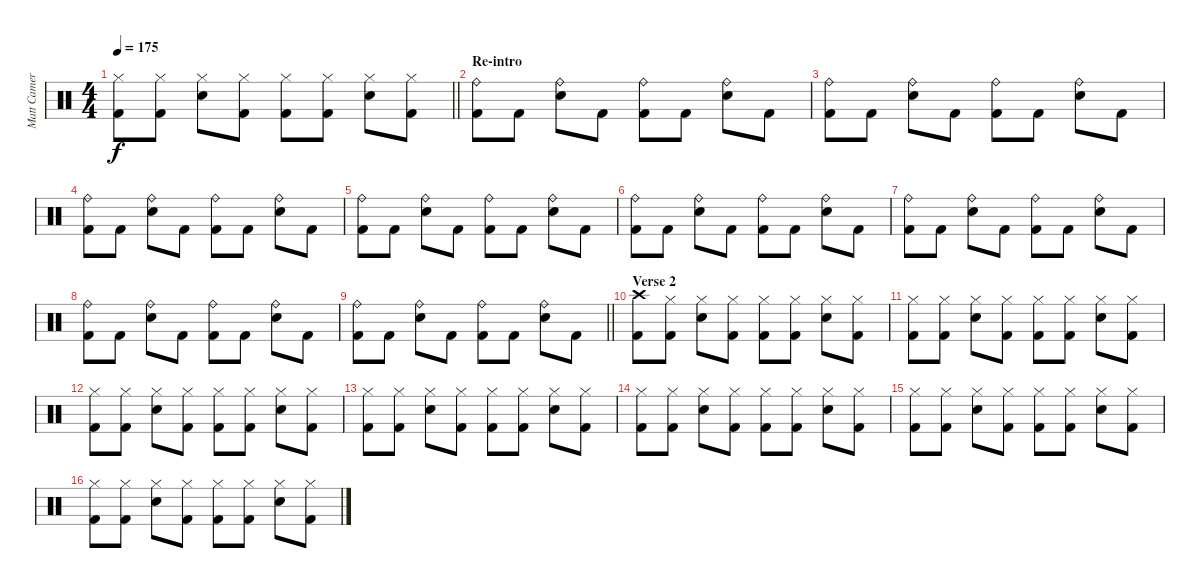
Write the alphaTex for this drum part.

\track ("Matt Cameron" "Matt Camer") {instrument percussion}
\staff {score}
\articulation defaults
\ts (4 4)
\tempo 175
\clef neutral
\barLineRight lightlight
\ks c
("Hi-Hat (closed)" "Kick (hit) 2").8{dy f} ("Hi-Hat (closed)" "Kick (hit) 2").8 ("Hi-Hat (closed)" "Electric Snare (hit)").8 ("Hi-Hat (closed)" "Kick (hit) 2").8 ("Hi-Hat (closed)" "Kick (hit) 2").8 ("Hi-Hat (closed)" "Kick (hit) 2").8 ("Hi-Hat (closed)" "Electric Snare (hit)").8 ("Hi-Hat (closed)" "Kick (hit) 2").8 |
\section ("" "Re-intro")
("Ride (bell)" "Kick (hit) 2").8 "Kick (hit) 2".8 ("Ride (bell)" "Electric Snare (hit)").8 "Kick (hit) 2".8 ("Ride (bell)" "Kick (hit) 2").8 "Kick (hit) 2".8 ("Ride (bell)" "Electric Snare (hit)").8 "Kick (hit) 2".8 |
("Ride (bell)" "Kick (hit) 2").8 "Kick (hit) 2".8 ("Ride (bell)" "Electric Snare (hit)").8 "Kick (hit) 2".8 ("Ride (bell)" "Kick (hit) 2").8 "Kick (hit) 2".8 ("Ride (bell)" "Electric Snare (hit)").8 "Kick (hit) 2".8 |
("Ride (bell)" "Kick (hit) 2").8 "Kick (hit) 2".8 ("Ride (bell)" "Electric Snare (hit)").8 "Kick (hit) 2".8 ("Ride (bell)" "Kick (hit) 2").8 "Kick (hit) 2".8 ("Ride (bell)" "Electric Snare (hit)").8 "Kick (hit) 2".8 |
("Ride (bell)" "Kick (hit) 2").8 "Kick (hit) 2".8 ("Ride (bell)" "Electric Snare (hit)").8 "Kick (hit) 2".8 ("Ride (bell)" "Kick (hit) 2").8 "Kick (hit) 2".8 ("Ride (bell)" "Electric Snare (hit)").8 "Kick (hit) 2".8 |
("Ride (bell)" "Kick (hit) 2").8 "Kick (hit) 2".8 ("Ride (bell)" "Electric Snare (hit)").8 "Kick (hit) 2".8 ("Ride (bell)" "Kick (hit) 2").8 "Kick (hit) 2".8 ("Ride (bell)" "Electric Snare (hit)").8 "Kick (hit) 2".8 |
("Ride (bell)" "Kick (hit) 2").8 "Kick (hit) 2".8 ("Ride (bell)" "Electric Snare (hit)").8 "Kick (hit) 2".8 ("Ride (bell)" "Kick (hit) 2").8 "Kick (hit) 2".8 ("Ride (bell)" "Electric Snare (hit)").8 "Kick (hit) 2".8 |
("Ride (bell)" "Kick (hit) 2").8 "Kick (hit) 2".8 ("Ride (bell)" "Electric Snare (hit)").8 "Kick (hit) 2".8 ("Ride (bell)" "Kick (hit) 2").8 "Kick (hit) 2".8 ("Ride (bell)" "Electric Snare (hit)").8 "Kick (hit) 2".8 |
\barLineRight lightlight
("Ride (bell)" "Kick (hit) 2").8 "Kick (hit) 2".8 ("Ride (bell)" "Electric Snare (hit)").8 "Kick (hit) 2".8 ("Ride (bell)" "Kick (hit) 2").8 "Kick (hit) 2".8 ("Ride (bell)" "Electric Snare (hit)").8 "Kick (hit) 2".8 |
\section ("" "Verse 2")
("Crash high (hit)" "Kick (hit) 2").8 ("Hi-Hat (closed)" "Kick (hit) 2").8 ("Hi-Hat (closed)" "Electric Snare (hit)").8 ("Hi-Hat (closed)" "Kick (hit) 2").8 ("Hi-Hat (closed)" "Kick (hit) 2").8 ("Hi-Hat (closed)" "Kick (hit) 2").8 ("Hi-Hat (closed)" "Electric Snare (hit)").8 ("Hi-Hat (closed)" "Kick (hit) 2").8 |
("Hi-Hat (closed)" "Kick (hit) 2").8 ("Hi-Hat (closed)" "Kick (hit) 2").8 ("Hi-Hat (closed)" "Electric Snare (hit)").8 ("Hi-Hat (closed)" "Kick (hit) 2").8 ("Hi-Hat (closed)" "Kick (hit) 2").8 ("Hi-Hat (closed)" "Kick (hit) 2").8 ("Hi-Hat (closed)" "Electric Snare (hit)").8 ("Hi-Hat (closed)" "Kick (hit) 2").8 |
("Hi-Hat (closed)" "Kick (hit) 2").8 ("Hi-Hat (closed)" "Kick (hit) 2").8 ("Hi-Hat (closed)" "Electric Snare (hit)").8 ("Hi-Hat (closed)" "Kick (hit) 2").8 ("Hi-Hat (closed)" "Kick (hit) 2").8 ("Hi-Hat (closed)" "Kick (hit) 2").8 ("Hi-Hat (closed)" "Electric Snare (hit)").8 ("Hi-Hat (closed)" "Kick (hit) 2").8 |
("Hi-Hat (closed)" "Kick (hit) 2").8 ("Hi-Hat (closed)" "Kick (hit) 2").8 ("Hi-Hat (closed)" "Electric Snare (hit)").8 ("Hi-Hat (closed)" "Kick (hit) 2").8 ("Hi-Hat (closed)" "Kick (hit) 2").8 ("Hi-Hat (closed)" "Kick (hit) 2").8 ("Hi-Hat (closed)" "Electric Snare (hit)").8 ("Hi-Hat (closed)" "Kick (hit) 2").8 |
("Hi-Hat (closed)" "Kick (hit) 2").8 ("Hi-Hat (closed)" "Kick (hit) 2").8 ("Hi-Hat (closed)" "Electric Snare (hit)").8 ("Hi-Hat (closed)" "Kick (hit) 2").8 ("Hi-Hat (closed)" "Kick (hit) 2").8 ("Hi-Hat (closed)" "Kick (hit) 2").8 ("Hi-Hat (closed)" "Electric Snare (hit)").8 ("Hi-Hat (closed)" "Kick (hit) 2").8 |
("Hi-Hat (closed)" "Kick (hit) 2").8 ("Hi-Hat (closed)" "Kick (hit) 2").8 ("Hi-Hat (closed)" "Electric Snare (hit)").8 ("Hi-Hat (closed)" "Kick (hit) 2").8 ("Hi-Hat (closed)" "Kick (hit) 2").8 ("Hi-Hat (closed)" "Kick (hit) 2").8 ("Hi-Hat (closed)" "Electric Snare (hit)").8 ("Hi-Hat (closed)" "Kick (hit) 2").8 |
("Hi-Hat (closed)" "Kick (hit) 2").8 ("Hi-Hat (closed)" "Kick (hit) 2").8 ("Hi-Hat (closed)" "Electric Snare (hit)").8 ("Hi-Hat (closed)" "Kick (hit) 2").8 ("Hi-Hat (closed)" "Kick (hit) 2").8 ("Hi-Hat (closed)" "Kick (hit) 2").8 ("Hi-Hat (closed)" "Electric Snare (hit)").8 ("Hi-Hat (closed)" "Kick (hit) 2").8
